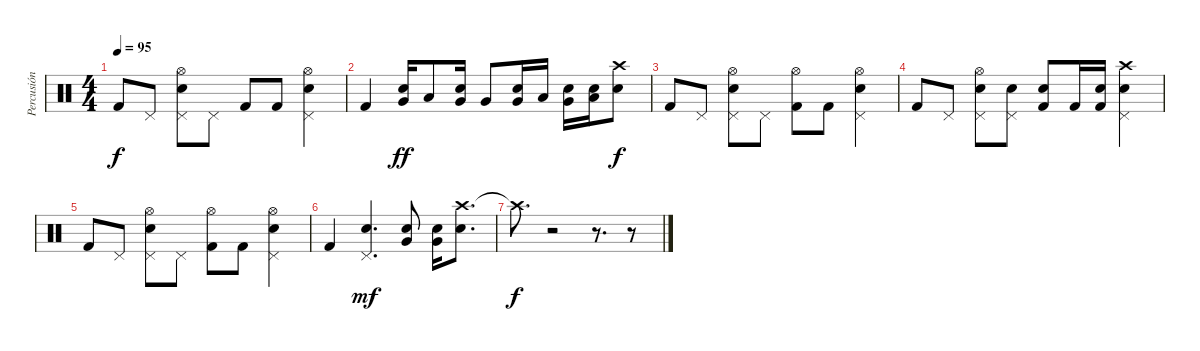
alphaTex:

\track ("Percusión" "Percusión") {instrument percussion}
\staff {score}
\articulation defaults
\ts (4 4)
\tempo 95
\clef neutral
\ks c "Kick (hit) 2".8{dy f} "Pedal Hi-Hat (hit)".8
("Snare (hit) 2" "Pedal Hi-Hat (hit)" "Hi-Hat (open)").8 "Pedal Hi-Hat (hit)".8 "Kick (hit) 2".8 "Kick (hit) 2".8 ("Snare (hit) 2" "Pedal Hi-Hat (hit)" "Hi-Hat (open)").4 |
"Kick (hit) 2".4 ("Very Low Tom (hit)" "Snare (hit) 2").16{dy ff} "Low Tom (hit)".8 ("Very Low Tom (hit)" "Snare (hit) 2").16 "Very Low Tom (hit)".8 ("Very Low Tom (hit)" "Snare (hit) 2").16 "Low Tom (hit)".16 ("Very Low Tom (hit)" "Snare (hit) 2").16 ("Snare (hit) 2" "Low Floor Tom (hit)").16 ("Crash high (hit)" "Snare (hit) 2").8{dy f} |
"Kick (hit) 2".8 "Pedal Hi-Hat (hit)".8 ("Snare (hit) 2" "Pedal Hi-Hat (hit)" "Hi-Hat (open)").8 "Pedal Hi-Hat (hit)".8 ("Kick (hit) 2" "Hi-Hat (open)").8 "Kick (hit) 2".8 ("Snare (hit) 2" "Pedal Hi-Hat (hit)" "Hi-Hat (open)").4 |
"Kick (hit) 2".8 "Pedal Hi-Hat (hit)".8 ("Snare (hit) 2" "Pedal Hi-Hat (hit)" "Hi-Hat (open)").8 ("Pedal Hi-Hat (hit)" "Snare (hit) 2").8 ("Kick (hit) 2" "Snare (hit) 2").8 "Kick (hit) 2".16 ("Kick (hit) 2" "Snare (hit) 2").16 ("Snare (hit) 2" "Pedal Hi-Hat (hit)" "Crash high (hit)").4 |
"Kick (hit) 2".8 "Pedal Hi-Hat (hit)".8 ("Snare (hit) 2" "Pedal Hi-Hat (hit)" "Hi-Hat (open)").8 "Pedal Hi-Hat (hit)".8 ("Kick (hit) 2" "Hi-Hat (open)").8 "Kick (hit) 2".8 ("Snare (hit) 2" "Pedal Hi-Hat (hit)" "Hi-Hat (open)").4 |
"Kick (hit) 2".4 ("Snare (hit) 2" "Pedal Hi-Hat (hit)").4{d dy mf} ("Very Low Tom (hit)" "Snare (hit) 2").8 ("Very Low Tom (hit)" "Snare (hit) 2").16 ("Crash high (hit)" "Snare (hit) 2").8{d} |
"Crash high (hit)"{t}.8{d dy f} r.2 r.8{d} r.8
